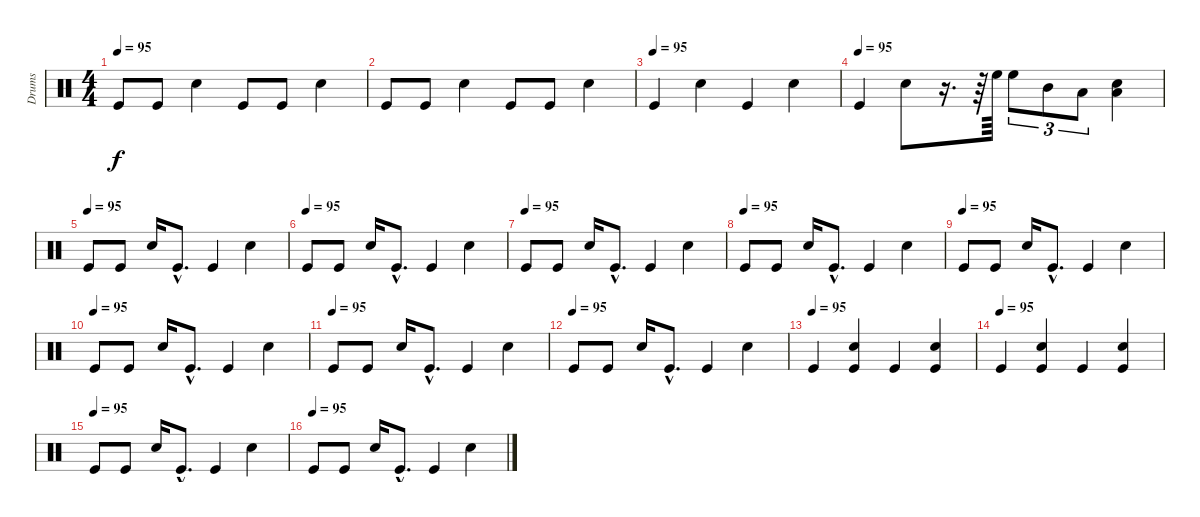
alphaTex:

\track ("Drums" "Drums") {instrument percussion}
\staff {score}
\articulation defaults
\ts (4 4)
\tempo 95
\clef neutral
\ks c "Kick (hit)".8{dy f} "Kick (hit)".8 "Snare (hit) 2".4 "Kick (hit)".8 "Kick (hit)".8 "Snare (hit) 2".4
|
"Kick (hit)".8 "Kick (hit)".8 "Snare (hit) 2".4 "Kick (hit)".8 "Kick (hit)".8 "Snare (hit) 2".4 |
\tempo (95)
"Kick (hit)".4 "Snare (hit) 2".4 "Kick (hit)".4 "Snare (hit) 2".4 |
\tempo (95)
"Kick (hit)".4 "Snare (hit) 2".8 r.16{d} r.64 "High Floor Tom (hit)".64 "High Floor Tom (hit)".8{tu (3 2)} "Mid Tom (hit)".8{tu (3 2)} "Low Tom (hit)".8{tu (3 2)} ("Low Floor Tom (hit)" "Snare (hit) 2").4 |
\tempo (95)
"Kick (hit)".8 "Kick (hit)".8 "Snare (hit) 2".16 "Kick (hit)"{hac}.8{d} "Kick (hit)".4 "Snare (hit) 2".4 |
\tempo (95)
"Kick (hit)".8 "Kick (hit)".8 "Snare (hit) 2".16 "Kick (hit)"{hac}.8{d} "Kick (hit)".4 "Snare (hit) 2".4 |
\tempo (95)
"Kick (hit)".8 "Kick (hit)".8 "Snare (hit) 2".16 "Kick (hit)"{hac}.8{d} "Kick (hit)".4 "Snare (hit) 2".4 |
\tempo (95)
"Kick (hit)".8 "Kick (hit)".8 "Snare (hit) 2".16 "Kick (hit)"{hac}.8{d} "Kick (hit)".4 "Snare (hit) 2".4 |
\tempo (95)
"Kick (hit)".8 "Kick (hit)".8 "Snare (hit) 2".16 "Kick (hit)"{hac}.8{d} "Kick (hit)".4 "Snare (hit) 2".4 |
\tempo (95)
"Kick (hit)".8 "Kick (hit)".8 "Snare (hit) 2".16 "Kick (hit)"{hac}.8{d} "Kick (hit)".4 "Snare (hit) 2".4 |
\tempo (95)
"Kick (hit)".8 "Kick (hit)".8 "Snare (hit) 2".16 "Kick (hit)"{hac}.8{d} "Kick (hit)".4 "Snare (hit) 2".4 |
\tempo (95)
"Kick (hit)".8 "Kick (hit)".8 "Snare (hit) 2".16 "Kick (hit)"{hac}.8{d} "Kick (hit)".4 "Snare (hit) 2".4 |
\tempo (95)
"Kick (hit)".4 ("Snare (hit) 2" "Kick (hit)").4 "Kick (hit)".4 ("Snare (hit) 2" "Kick (hit)").4 |
\tempo (95)
"Kick (hit)".4 ("Snare (hit) 2" "Kick (hit)").4 "Kick (hit)".4 ("Snare (hit) 2" "Kick (hit)").4 |
\tempo (95)
"Kick (hit)".8 "Kick (hit)".8 "Snare (hit) 2".16 "Kick (hit)"{hac}.8{d} "Kick (hit)".4 "Snare (hit) 2".4 |
\tempo (95)
"Kick (hit)".8 "Kick (hit)".8 "Snare (hit) 2".16 "Kick (hit)"{hac}.8{d} "Kick (hit)".4 "Snare (hit) 2".4
